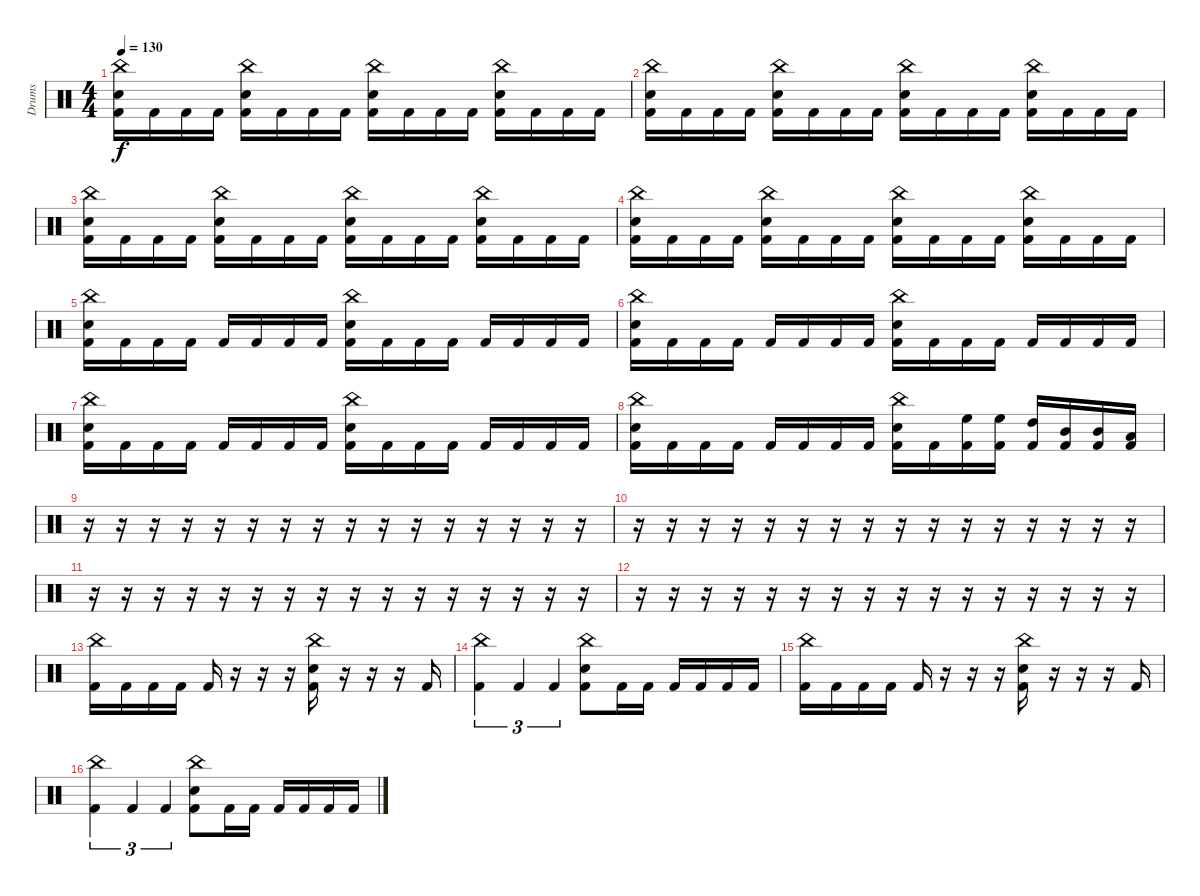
\track ("Drums" "Drums") {instrument percussion}
\staff {score}
\articulation defaults
\ts (4 4)
\tempo 130
\clef neutral
\ks c
("China (hit)" "Snare (hit) 2" "Kick (hit) 2").16{dy f} "Kick (hit) 2".16 "Kick (hit) 2".16 "Kick (hit) 2".16 ("China (hit)" "Snare (hit) 2" "Kick (hit) 2").16 "Kick (hit) 2".16 "Kick (hit) 2".16 "Kick (hit) 2".16 ("China (hit)" "Snare (hit) 2" "Kick (hit) 2").16 "Kick (hit) 2".16 "Kick (hit) 2".16 "Kick (hit) 2".16 ("China (hit)" "Snare (hit) 2" "Kick (hit) 2").16 "Kick (hit) 2".16 "Kick (hit) 2".16 "Kick (hit) 2".16 |
("China (hit)" "Snare (hit) 2" "Kick (hit) 2").16 "Kick (hit) 2".16 "Kick (hit) 2".16 "Kick (hit) 2".16 ("China (hit)" "Snare (hit) 2" "Kick (hit) 2").16 "Kick (hit) 2".16 "Kick (hit) 2".16 "Kick (hit) 2".16 ("China (hit)" "Snare (hit) 2" "Kick (hit) 2").16 "Kick (hit) 2".16 "Kick (hit) 2".16 "Kick (hit) 2".16 ("China (hit)" "Snare (hit) 2" "Kick (hit) 2").16 "Kick (hit) 2".16 "Kick (hit) 2".16 "Kick (hit) 2".16 |
("China (hit)" "Snare (hit) 2" "Kick (hit) 2").16 "Kick (hit) 2".16 "Kick (hit) 2".16 "Kick (hit) 2".16 ("China (hit)" "Snare (hit) 2" "Kick (hit) 2").16 "Kick (hit) 2".16 "Kick (hit) 2".16 "Kick (hit) 2".16 ("China (hit)" "Snare (hit) 2" "Kick (hit) 2").16 "Kick (hit) 2".16 "Kick (hit) 2".16 "Kick (hit) 2".16 ("China (hit)" "Snare (hit) 2" "Kick (hit) 2").16 "Kick (hit) 2".16 "Kick (hit) 2".16 "Kick (hit) 2".16 |
("China (hit)" "Snare (hit) 2" "Kick (hit) 2").16 "Kick (hit) 2".16 "Kick (hit) 2".16 "Kick (hit) 2".16 ("China (hit)" "Snare (hit) 2" "Kick (hit) 2").16 "Kick (hit) 2".16 "Kick (hit) 2".16 "Kick (hit) 2".16 ("China (hit)" "Snare (hit) 2" "Kick (hit) 2").16 "Kick (hit) 2".16 "Kick (hit) 2".16 "Kick (hit) 2".16 ("China (hit)" "Snare (hit) 2" "Kick (hit) 2").16 "Kick (hit) 2".16 "Kick (hit) 2".16 "Kick (hit) 2".16 |
("China (hit)" "Snare (hit) 2" "Kick (hit) 2").16 "Kick (hit) 2".16 "Kick (hit) 2".16 "Kick (hit) 2".16 "Kick (hit) 2".16 "Kick (hit) 2".16 "Kick (hit) 2".16 "Kick (hit) 2".16 ("China (hit)" "Snare (hit) 2" "Kick (hit) 2").16 "Kick (hit) 2".16 "Kick (hit) 2".16 "Kick (hit) 2".16 "Kick (hit) 2".16 "Kick (hit) 2".16 "Kick (hit) 2".16 "Kick (hit) 2".16 |
("China (hit)" "Snare (hit) 2" "Kick (hit) 2").16 "Kick (hit) 2".16 "Kick (hit) 2".16 "Kick (hit) 2".16 "Kick (hit) 2".16 "Kick (hit) 2".16 "Kick (hit) 2".16 "Kick (hit) 2".16 ("China (hit)" "Snare (hit) 2" "Kick (hit) 2").16 "Kick (hit) 2".16 "Kick (hit) 2".16 "Kick (hit) 2".16 "Kick (hit) 2".16 "Kick (hit) 2".16 "Kick (hit) 2".16 "Kick (hit) 2".16 |
("China (hit)" "Snare (hit) 2" "Kick (hit) 2").16 "Kick (hit) 2".16 "Kick (hit) 2".16 "Kick (hit) 2".16 "Kick (hit) 2".16 "Kick (hit) 2".16 "Kick (hit) 2".16 "Kick (hit) 2".16 ("China (hit)" "Snare (hit) 2" "Kick (hit) 2").16 "Kick (hit) 2".16 "Kick (hit) 2".16 "Kick (hit) 2".16 "Kick (hit) 2".16 "Kick (hit) 2".16 "Kick (hit) 2".16 "Kick (hit) 2".16 |
("China (hit)" "Snare (hit) 2" "Kick (hit) 2").16 "Kick (hit) 2".16 "Kick (hit) 2".16 "Kick (hit) 2".16 "Kick (hit) 2".16 "Kick (hit) 2".16 "Kick (hit) 2".16 "Kick (hit) 2".16 ("China (hit)" "Snare (hit) 2" "Kick (hit) 2").16 "Kick (hit) 2".16 ("High Floor Tom (hit)" "Kick (hit) 2").16 ("High Floor Tom (hit)" "Kick (hit) 2").16 ("High Tom (hit)" "Kick (hit) 2").16 ("Mid Tom (hit)" "Kick (hit) 2").16 ("Mid Tom (hit)" "Kick (hit) 2").16 ("Low Tom (hit)" "Kick (hit) 2").16 |
r.16 r.16 r.16 r.16 r.16 r.16 r.16 r.16 r.16 r.16 r.16 r.16 r.16 r.16 r.16 r.16 |
r.16 r.16 r.16 r.16 r.16 r.16 r.16 r.16 r.16 r.16 r.16 r.16 r.16 r.16 r.16 r.16 |
r.16 r.16 r.16 r.16 r.16 r.16 r.16 r.16 r.16 r.16 r.16 r.16 r.16 r.16 r.16 r.16 |
r.16 r.16 r.16 r.16 r.16 r.16 r.16 r.16 r.16 r.16 r.16 r.16 r.16 r.16 r.16 r.16 |
("China (hit)" "Kick (hit) 2").16 "Kick (hit) 2".16 "Kick (hit) 2".16 "Kick (hit) 2".16 "Kick (hit) 2".16 r.16 r.16 r.16 ("China (hit)" "Snare (hit) 2" "Kick (hit) 2").16 r.16 r.16 r.16 "Kick (hit) 2".16 |
("China (hit)" "Kick (hit) 2").4{tu (3 2)} "Kick (hit) 2".4{tu (3 2)} "Kick (hit) 2".4{tu (3 2)} ("China (hit)" "Snare (hit) 2" "Kick (hit) 2").8 "Kick (hit) 2".16 "Kick (hit) 2".16 "Kick (hit) 2".16 "Kick (hit) 2".16 "Kick (hit) 2".16 "Kick (hit) 2".16 |
("China (hit)" "Kick (hit) 2").16 "Kick (hit) 2".16 "Kick (hit) 2".16 "Kick (hit) 2".16 "Kick (hit) 2".16 r.16 r.16 r.16 ("China (hit)" "Snare (hit) 2" "Kick (hit) 2").16 r.16 r.16 r.16 "Kick (hit) 2".16 |
("China (hit)" "Kick (hit) 2").4{tu (3 2)} "Kick (hit) 2".4{tu (3 2)} "Kick (hit) 2".4{tu (3 2)} ("China (hit)" "Snare (hit) 2" "Kick (hit) 2").8 "Kick (hit) 2".16 "Kick (hit) 2".16 "Kick (hit) 2".16 "Kick (hit) 2".16 "Kick (hit) 2".16 "Kick (hit) 2".16
